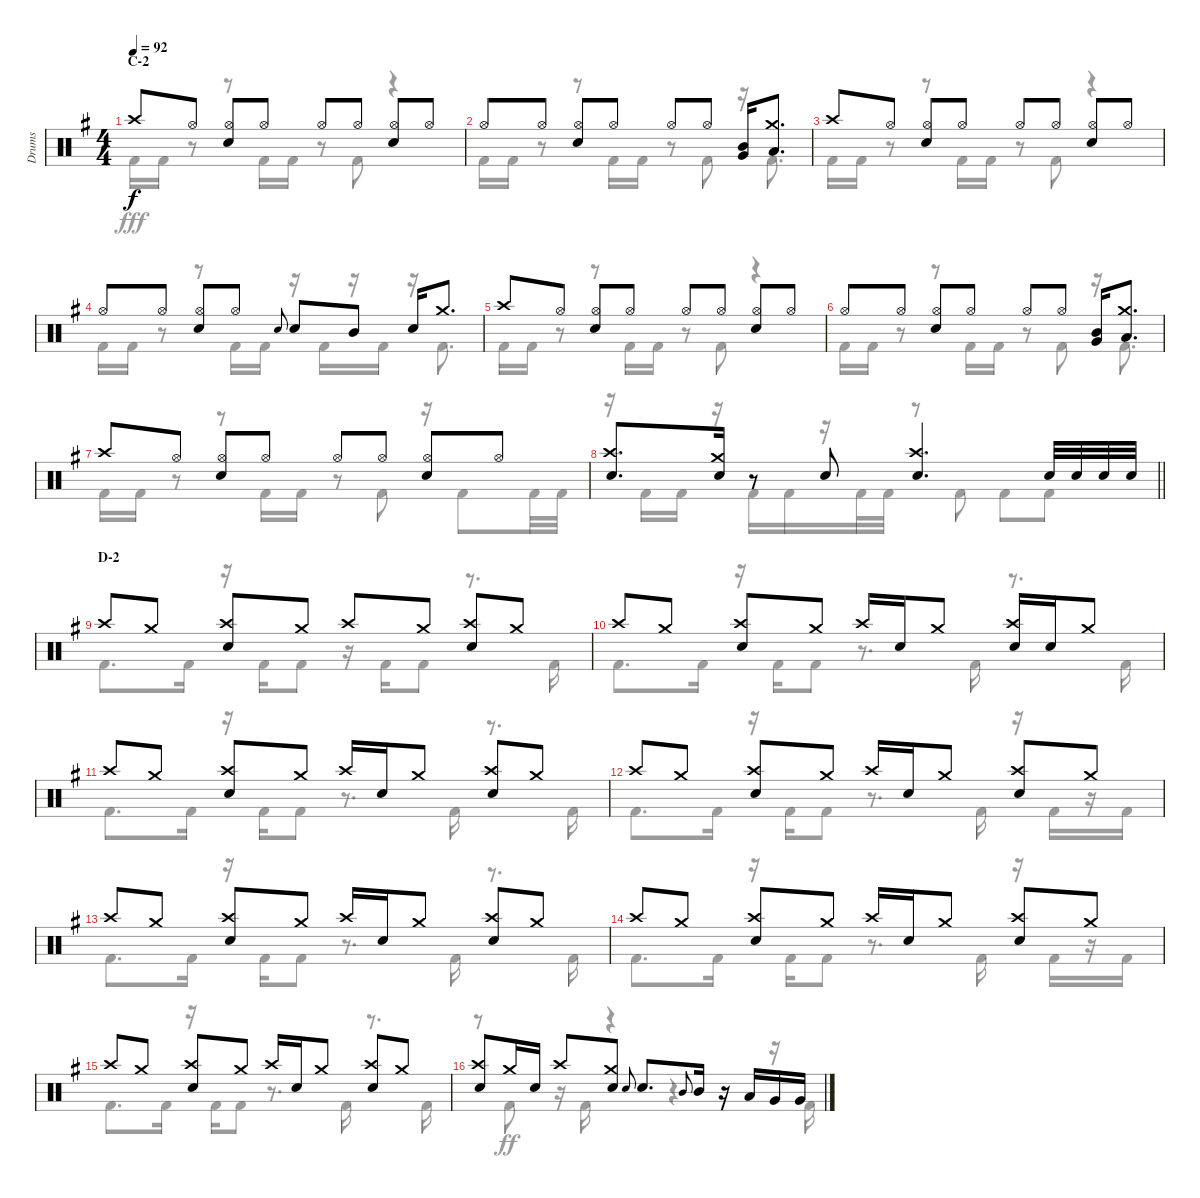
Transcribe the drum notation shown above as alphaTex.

\track ("Drums" "Drums") {instrument percussion}
\staff {score}
\articulation defaults
\voice
\ts (4 4)
\section ("" "C-2")
\tempo 92
\clef neutral
\ks eminor "Crash high (hit)".8{dy f} "Hi-Hat (open)".8
("Hi-Hat (open)" "Snare (hit) 2").8 "Hi-Hat (open)".8 "Hi-Hat (open)".8 "Hi-Hat (open)".8 ("Hi-Hat (open)" "Snare (hit) 2").8 "Hi-Hat (open)".8 |
"Hi-Hat (open)".8 "Hi-Hat (open)".8 ("Hi-Hat (open)" "Snare (hit) 2").8 "Hi-Hat (open)".8 "Hi-Hat (open)".8 "Hi-Hat (open)".8 ("Mid Tom (hit)" "Very Low Tom (hit)").16 ("Crash medium (hit)" "Low Tom (hit)").8{d} |
"Crash high (hit)".8 "Hi-Hat (open)".8 ("Hi-Hat (open)" "Snare (hit) 2").8 "Hi-Hat (open)".8 "Hi-Hat (open)".8 "Hi-Hat (open)".8 ("Hi-Hat (open)" "Snare (hit) 2").8 "Hi-Hat (open)".8 |
"Hi-Hat (open)".8 "Hi-Hat (open)".8 ("Hi-Hat (open)" "Snare (hit) 2").8 "Hi-Hat (open)".8 "Snare (hit) 2".8{gr onbeat} "Snare (hit) 2".8 "Mid Tom (hit)".8 "Snare (hit) 2".16 "Crash medium (hit)".8{d} |
"Crash high (hit)".8 "Hi-Hat (open)".8 ("Hi-Hat (open)" "Snare (hit) 2").8 "Hi-Hat (open)".8 "Hi-Hat (open)".8 "Hi-Hat (open)".8 ("Hi-Hat (open)" "Snare (hit) 2").8 "Hi-Hat (open)".8 |
"Hi-Hat (open)".8 "Hi-Hat (open)".8 ("Hi-Hat (open)" "Snare (hit) 2").8 "Hi-Hat (open)".8 "Hi-Hat (open)".8 "Hi-Hat (open)".8 ("Mid Tom (hit)" "Very Low Tom (hit)").16 ("Crash medium (hit)" "Low Tom (hit)").8{d} |
"Crash high (hit)".8 "Hi-Hat (open)".8 ("Hi-Hat (open)" "Snare (hit) 2").8 "Hi-Hat (open)".8 "Hi-Hat (open)".8 "Hi-Hat (open)".8 ("Hi-Hat (open)" "Snare (hit) 2").8 "Hi-Hat (open)".8 |
\barLineRight lightlight
("Crash high (hit)" "Snare (hit) 2").8{d} ("Crash medium (hit)" "Snare (hit) 2").16 r.8 "Snare (hit) 2".8 ("Crash high (hit)" "Snare (hit) 2").4{d} "Snare (hit) 2".32 "Snare (hit) 2".32 "Snare (hit) 2".32 "Snare (hit) 2".32 |
\section ("" "D-2")
"Crash high (hit)".8 "Crash medium (hit)".8 ("Crash high (hit)" "Snare (hit) 2").8 "Crash medium (hit)".8 "Crash high (hit)".8 "Crash medium (hit)".8 ("Crash high (hit)" "Snare (hit) 2").8 "Crash medium (hit)".8 |
"Crash high (hit)".8 "Crash medium (hit)".8 ("Crash high (hit)" "Snare (hit) 2").8 "Crash medium (hit)".8 "Crash high (hit)".16 "Snare (hit) 2".16 "Crash medium (hit)".8 ("Crash high (hit)" "Snare (hit) 2").16 "Snare (hit) 2".16 "Crash medium (hit)".8 |
"Crash high (hit)".8 "Crash medium (hit)".8 ("Crash high (hit)" "Snare (hit) 2").8 "Crash medium (hit)".8 "Crash high (hit)".16 "Snare (hit) 2".16 "Crash medium (hit)".8 ("Crash high (hit)" "Snare (hit) 2").8 "Crash medium (hit)".8 |
"Crash high (hit)".8 "Crash medium (hit)".8 ("Crash high (hit)" "Snare (hit) 2").8 "Crash medium (hit)".8 "Crash high (hit)".16 "Snare (hit) 2".16 "Crash medium (hit)".8 ("Crash high (hit)" "Snare (hit) 2").8 "Crash medium (hit)".8 |
"Crash high (hit)".8 "Crash medium (hit)".8 ("Crash high (hit)" "Snare (hit) 2").8 "Crash medium (hit)".8 "Crash high (hit)".16 "Snare (hit) 2".16 "Crash medium (hit)".8 ("Crash high (hit)" "Snare (hit) 2").8 "Crash medium (hit)".8 |
"Crash high (hit)".8 "Crash medium (hit)".8 ("Crash high (hit)" "Snare (hit) 2").8 "Crash medium (hit)".8 "Crash high (hit)".16 "Snare (hit) 2".16 "Crash medium (hit)".8 ("Crash high (hit)" "Snare (hit) 2").8 "Crash medium (hit)".8 |
"Crash high (hit)".8 "Crash medium (hit)".8 ("Crash high (hit)" "Snare (hit) 2").8 "Crash medium (hit)".8 "Crash high (hit)".16 "Snare (hit) 2".16 "Crash medium (hit)".8 ("Crash high (hit)" "Snare (hit) 2").8 "Crash medium (hit)".8 |
("Crash high (hit)" "Snare (hit) 2").8 "Crash medium (hit)".16 "Snare (hit) 2".16 "Crash high (hit)".8 ("Crash medium (hit)" "Snare (hit) 2").8 "Snare (hit) 2".8{gr onbeat} "Snare (hit) 2".8{d} "Mid Tom (hit)".8{gr onbeat} "Mid Tom (hit)".16 r.16 "Low Tom (hit)".16 "Very Low Tom (hit)".16 "Very Low Tom (hit)".16
\voice
\clef neutral
\ottava regular
\simile none
\ks eminor "Kick (hit) 2".16{dy fff} "Kick (hit) 2".16
r.8 r.8 "Kick (hit) 2".16 "Kick (hit) 2".16 r.8 "Kick (hit) 2".8 r.4 |
"Kick (hit) 2".16 "Kick (hit) 2".16 r.8 r.8 "Kick (hit) 2".16 "Kick (hit) 2".16 r.8 "Kick (hit) 2".8 r.16 "Kick (hit) 2".8{d} |
"Kick (hit) 2".16 "Kick (hit) 2".16 r.8 r.8 "Kick (hit) 2".16 "Kick (hit) 2".16 r.8 "Kick (hit) 2".8 r.4 |
"Kick (hit) 2".16 "Kick (hit) 2".16 r.8 r.8 "Kick (hit) 2".16 "Kick (hit) 2".16 r.16 "Kick (hit) 2".16 r.16 "Kick (hit) 2".16 r.16 "Kick (hit) 2".8{d} |
"Kick (hit) 2".16 "Kick (hit) 2".16 r.8 r.8 "Kick (hit) 2".16 "Kick (hit) 2".16 r.8 "Kick (hit) 2".8 r.4 |
"Kick (hit) 2".16 "Kick (hit) 2".16 r.8 r.8 "Kick (hit) 2".16 "Kick (hit) 2".16 r.8 "Kick (hit) 2".8 r.16 "Kick (hit) 2".8{d} |
"Kick (hit) 2".16 "Kick (hit) 2".16 r.8 r.8 "Kick (hit) 2".16 "Kick (hit) 2".16 r.8 "Kick (hit) 2".8 r.16 "Kick (hit) 2".8 "Kick (hit) 2".32 "Kick (hit) 2".32 |
\barLineRight lightlight
r.16 "Kick (hit) 2".16 "Kick (hit) 2".16 r.16 "Kick (hit) 2".16 "Kick (hit) 2".16 r.16 "Kick (hit) 2".32 "Kick (hit) 2".32 r.8 "Kick (hit) 2".8 "Kick (hit) 2".8 "Kick (hit) 2".8 |
"Kick (hit) 2".8{d} "Kick (hit) 2".16 r.16 "Kick (hit) 2".16 "Kick (hit) 2".8 r.16 "Kick (hit) 2".16 "Kick (hit) 2".8 r.8{d} "Kick (hit) 2".16 |
"Kick (hit) 2".8{d} "Kick (hit) 2".16 r.16 "Kick (hit) 2".16 "Kick (hit) 2".8 r.8{d} "Kick (hit) 2".16 r.8{d} "Kick (hit) 2".16 |
"Kick (hit) 2".8{d} "Kick (hit) 2".16 r.16 "Kick (hit) 2".16 "Kick (hit) 2".8 r.8{d} "Kick (hit) 2".16 r.8{d} "Kick (hit) 2".16 |
"Kick (hit) 2".8{d} "Kick (hit) 2".16 r.16 "Kick (hit) 2".16 "Kick (hit) 2".8 r.8{d} "Kick (hit) 2".16 r.16 "Kick (hit) 2".16 r.16 "Kick (hit) 2".16 |
"Kick (hit) 2".8{d} "Kick (hit) 2".16 r.16 "Kick (hit) 2".16 "Kick (hit) 2".8 r.8{d} "Kick (hit) 2".16 r.8{d} "Kick (hit) 2".16 |
"Kick (hit) 2".8{d} "Kick (hit) 2".16 r.16 "Kick (hit) 2".16 "Kick (hit) 2".8 r.8{d} "Kick (hit) 2".16 r.16 "Kick (hit) 2".16 r.16 "Kick (hit) 2".16 |
"Kick (hit) 2".8{d} "Kick (hit) 2".16 r.16 "Kick (hit) 2".16 "Kick (hit) 2".8 r.8{d} "Kick (hit) 2".16 r.8{d} "Kick (hit) 2".16 |
r.8 "Kick (hit) 2".8{dy ff} r.16 "Kick (hit) 2".16 r.4 r.4 r.16 "Kick (hit) 2".16
